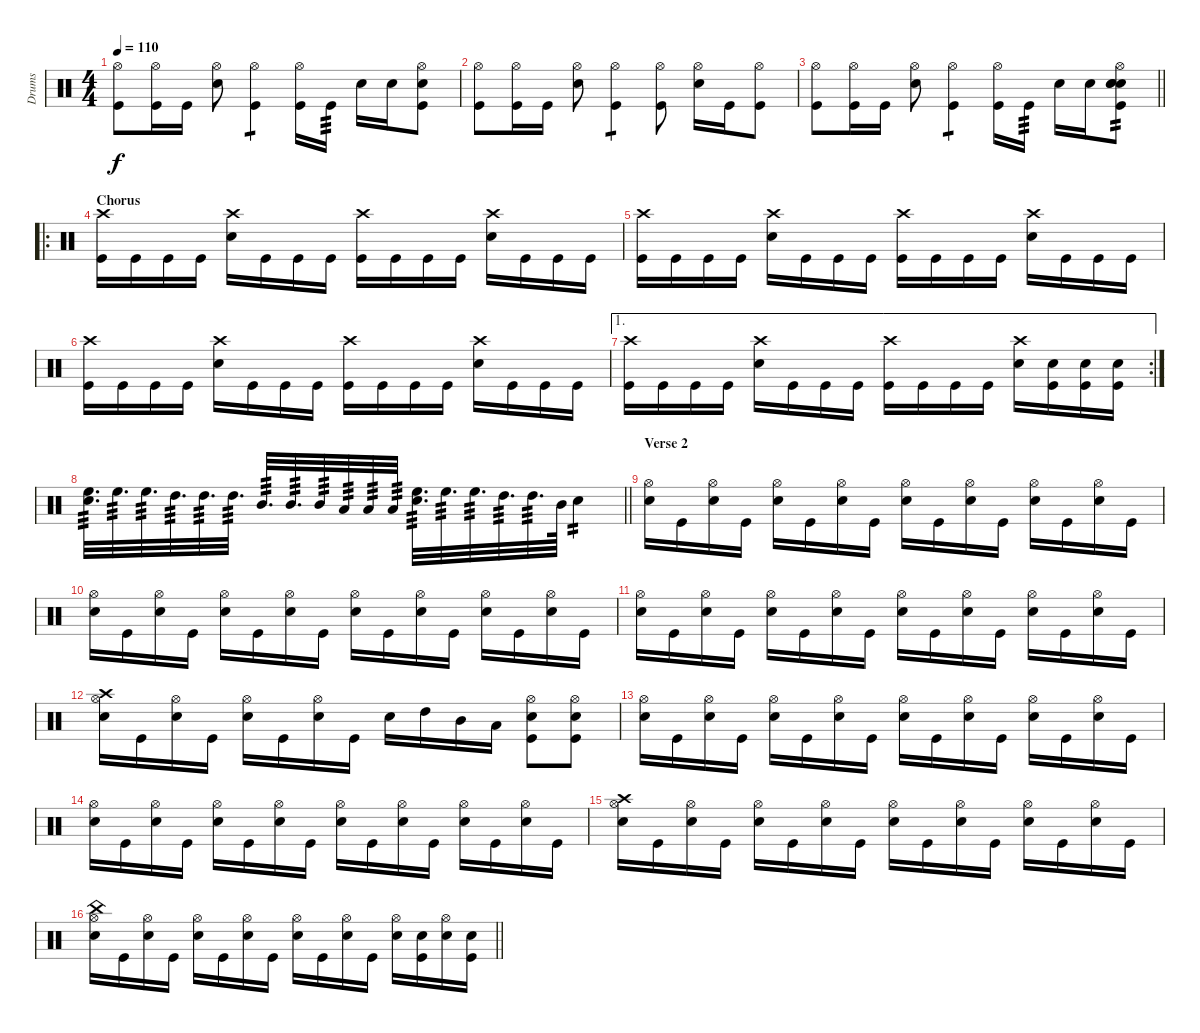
\track ("Drums" "Drums") {instrument percussion}
\staff {score}
\articulation defaults
\ts (4 4)
\tempo 110
\clef neutral
\ks c
("Hi-Hat (open)" "Kick (hit)").8{dy f} ("Hi-Hat (open)" "Kick (hit)").16 "Kick (hit)".16 ("Hi-Hat (open)" "Snare (hit) 2").8 ("Hi-Hat (open)" "Kick (hit)").4{tp 1} ("Hi-Hat (open)" "Kick (hit)").16 "Kick (hit)".16{tp 3} "Snare (hit) 2".16 "Snare (hit) 2".16 ("Kick (hit)" "Hi-Hat (open)" "Snare (hit) 2").8 |
("Hi-Hat (open)" "Kick (hit)").8 ("Hi-Hat (open)" "Kick (hit)").16 "Kick (hit)".16 ("Hi-Hat (open)" "Snare (hit) 2").8 ("Hi-Hat (open)" "Kick (hit)").4{tp 1} ("Hi-Hat (open)" "Kick (hit)").8 ("Hi-Hat (open)" "Snare (hit) 2").16 "Kick (hit)".16 ("Hi-Hat (open)" "Kick (hit)").8 |
\barLineRight lightlight
("Hi-Hat (open)" "Kick (hit)").8 ("Hi-Hat (open)" "Kick (hit)").16 "Kick (hit)".16 ("Hi-Hat (open)" "Snare (hit) 2").8 ("Hi-Hat (open)" "Kick (hit)").4{tp 1} ("Hi-Hat (open)" "Kick (hit)").16 "Kick (hit)".16{tp 3} "Snare (hit) 2".16 "Snare (hit) 2".16 ("Hi-Hat (open)" "Kick (hit)" "Snare (hit) 2" "Snare (hit) 2" "Snare (hit) 2").8{tp 2} |
\ro
\section ("" "Chorus")
("Crash high (hit)" "Kick (hit)").16 "Kick (hit)".16 "Kick (hit)".16 "Kick (hit)".16 ("Crash high (hit)" "Snare (hit) 2").16 "Kick (hit)".16 "Kick (hit)".16 "Kick (hit)".16 ("Crash high (hit)" "Kick (hit)").16 "Kick (hit)".16 "Kick (hit)".16 "Kick (hit)".16 ("Crash high (hit)" "Snare (hit) 2").16 "Kick (hit)".16 "Kick (hit)".16 "Kick (hit)".16 |
("Crash high (hit)" "Kick (hit)").16 "Kick (hit)".16 "Kick (hit)".16 "Kick (hit)".16 ("Crash high (hit)" "Snare (hit) 2").16 "Kick (hit)".16 "Kick (hit)".16 "Kick (hit)".16 ("Crash high (hit)" "Kick (hit)").16 "Kick (hit)".16 "Kick (hit)".16 "Kick (hit)".16 ("Crash high (hit)" "Snare (hit) 2").16 "Kick (hit)".16 "Kick (hit)".16 "Kick (hit)".16 |
("Crash high (hit)" "Kick (hit)").16 "Kick (hit)".16 "Kick (hit)".16 "Kick (hit)".16 ("Crash high (hit)" "Snare (hit) 2").16 "Kick (hit)".16 "Kick (hit)".16 "Kick (hit)".16 ("Crash high (hit)" "Kick (hit)").16 "Kick (hit)".16 "Kick (hit)".16 "Kick (hit)".16 ("Crash high (hit)" "Snare (hit) 2").16 "Kick (hit)".16 "Kick (hit)".16 "Kick (hit)".16 |
\ae 1
\rc 2
("Crash high (hit)" "Kick (hit)").16 "Kick (hit)".16 "Kick (hit)".16 "Kick (hit)".16 ("Crash high (hit)" "Snare (hit) 2").16 "Kick (hit)".16 "Kick (hit)".16 "Kick (hit)".16 ("Crash high (hit)" "Kick (hit)").16 "Kick (hit)".16 "Kick (hit)".16 "Kick (hit)".16 ("Crash high (hit)" "Snare (hit) 2").16 ("Snare (hit) 2" "Kick (hit)").16 ("Snare (hit) 2" "Kick (hit)").16 ("Snare (hit) 2" "Kick (hit)").16 |
\barLineRight lightlight
("Snare (hit) 2" "High Floor Tom (hit)").32{d tp 3} "High Floor Tom (hit)".32{d tp 3} "High Floor Tom (hit)".32{d tp 3} "High Tom (hit)".32{d tp 3} "High Tom (hit)".32{d tp 3} "High Tom (hit)".32{d tp 3} "Mid Tom (hit)".32{d tp 3} "Mid Tom (hit)".32{d tp 3} "Mid Tom (hit)".32{tp 3} "Low Tom (hit)".32{tp 3} "Low Tom (hit)".32{tp 3} "Low Tom (hit)".32{tp 3} ("Snare (hit) 2" "High Floor Tom (hit)").32{d tp 3} "High Floor Tom (hit)".32{d tp 3} "High Floor Tom (hit)".32{d tp 3} "High Tom (hit)".32{d tp 3} "High Tom (hit)".32{d tp 3} "Mid Tom (hit)".64 "Snare (hit) 2".4{tp 2} |
\section ("" "Verse 2")
("Hi-Hat (open)" "Snare (hit) 2").16 "Kick (hit)".16 ("Hi-Hat (open)" "Snare (hit) 2").16 "Kick (hit)".16 ("Hi-Hat (open)" "Snare (hit) 2").16 "Kick (hit)".16 ("Hi-Hat (open)" "Snare (hit) 2").16 "Kick (hit)".16 ("Hi-Hat (open)" "Snare (hit) 2").16 "Kick (hit)".16 ("Hi-Hat (open)" "Snare (hit) 2").16 "Kick (hit)".16 ("Hi-Hat (open)" "Snare (hit) 2").16 "Kick (hit)".16 ("Hi-Hat (open)" "Snare (hit) 2").16 "Kick (hit)".16 |
("Hi-Hat (open)" "Snare (hit) 2").16 "Kick (hit)".16 ("Hi-Hat (open)" "Snare (hit) 2").16 "Kick (hit)".16 ("Hi-Hat (open)" "Snare (hit) 2").16 "Kick (hit)".16 ("Hi-Hat (open)" "Snare (hit) 2").16 "Kick (hit)".16 ("Hi-Hat (open)" "Snare (hit) 2").16 "Kick (hit)".16 ("Hi-Hat (open)" "Snare (hit) 2").16 "Kick (hit)".16 ("Hi-Hat (open)" "Snare (hit) 2").16 "Kick (hit)".16 ("Hi-Hat (open)" "Snare (hit) 2").16 "Kick (hit)".16 |
("Hi-Hat (open)" "Snare (hit) 2").16 "Kick (hit)".16 ("Hi-Hat (open)" "Snare (hit) 2").16 "Kick (hit)".16 ("Hi-Hat (open)" "Snare (hit) 2").16 "Kick (hit)".16 ("Hi-Hat (open)" "Snare (hit) 2").16 "Kick (hit)".16 ("Hi-Hat (open)" "Snare (hit) 2").16 "Kick (hit)".16 ("Hi-Hat (open)" "Snare (hit) 2").16 "Kick (hit)".16 ("Hi-Hat (open)" "Snare (hit) 2").16 "Kick (hit)".16 ("Hi-Hat (open)" "Snare (hit) 2").16 "Kick (hit)".16 |
("Crash high (hit)" "Hi-Hat (open)" "Snare (hit) 2").16 "Kick (hit)".16 ("Hi-Hat (open)" "Snare (hit) 2").16 "Kick (hit)".16 ("Hi-Hat (open)" "Snare (hit) 2").16 "Kick (hit)".16 ("Hi-Hat (open)" "Snare (hit) 2").16 "Kick (hit)".16 "Snare (hit) 2".16 "High Tom (hit)".16 "Mid Tom (hit)".16 "Low Tom (hit)".16 ("Hi-Hat (open)" "Snare (hit) 2" "Kick (hit)").8 ("Hi-Hat (open)" "Snare (hit) 2" "Kick (hit)").8 |
("Hi-Hat (open)" "Snare (hit) 2").16 "Kick (hit)".16 ("Hi-Hat (open)" "Snare (hit) 2").16 "Kick (hit)".16 ("Hi-Hat (open)" "Snare (hit) 2").16 "Kick (hit)".16 ("Hi-Hat (open)" "Snare (hit) 2").16 "Kick (hit)".16 ("Hi-Hat (open)" "Snare (hit) 2").16 "Kick (hit)".16 ("Hi-Hat (open)" "Snare (hit) 2").16 "Kick (hit)".16 ("Hi-Hat (open)" "Snare (hit) 2").16 "Kick (hit)".16 ("Hi-Hat (open)" "Snare (hit) 2").16 "Kick (hit)".16 |
("Hi-Hat (open)" "Snare (hit) 2").16 "Kick (hit)".16 ("Hi-Hat (open)" "Snare (hit) 2").16 "Kick (hit)".16 ("Hi-Hat (open)" "Snare (hit) 2").16 "Kick (hit)".16 ("Hi-Hat (open)" "Snare (hit) 2").16 "Kick (hit)".16 ("Hi-Hat (open)" "Snare (hit) 2").16 "Kick (hit)".16 ("Hi-Hat (open)" "Snare (hit) 2").16 "Kick (hit)".16 ("Hi-Hat (open)" "Snare (hit) 2").16 "Kick (hit)".16 ("Hi-Hat (open)" "Snare (hit) 2").16 "Kick (hit)".16 |
("Crash high (hit)" "Hi-Hat (open)" "Snare (hit) 2").16 "Kick (hit)".16 ("Hi-Hat (open)" "Snare (hit) 2").16 "Kick (hit)".16 ("Hi-Hat (open)" "Snare (hit) 2").16 "Kick (hit)".16 ("Hi-Hat (open)" "Snare (hit) 2").16 "Kick (hit)".16 ("Hi-Hat (open)" "Snare (hit) 2").16 "Kick (hit)".16 ("Hi-Hat (open)" "Snare (hit) 2").16 "Kick (hit)".16 ("Hi-Hat (open)" "Snare (hit) 2").16 "Kick (hit)".16 ("Hi-Hat (open)" "Snare (hit) 2").16 "Kick (hit)".16 |
\barLineRight lightlight
("China (hit)" "Hi-Hat (open)" "Snare (hit) 2").16 "Kick (hit)".16 ("Hi-Hat (open)" "Snare (hit) 2").16 "Kick (hit)".16 ("Hi-Hat (open)" "Snare (hit) 2").16 "Kick (hit)".16 ("Hi-Hat (open)" "Snare (hit) 2").16 "Kick (hit)".16 ("Hi-Hat (open)" "Snare (hit) 2").16 "Kick (hit)".16 ("Hi-Hat (open)" "Snare (hit) 2").16 "Kick (hit)".16 ("Hi-Hat (open)" "Snare (hit) 2").16 ("Snare (hit) 2" "Kick (hit)").16 ("Hi-Hat (open)" "Snare (hit) 2").16 ("Snare (hit) 2" "Kick (hit)").16
